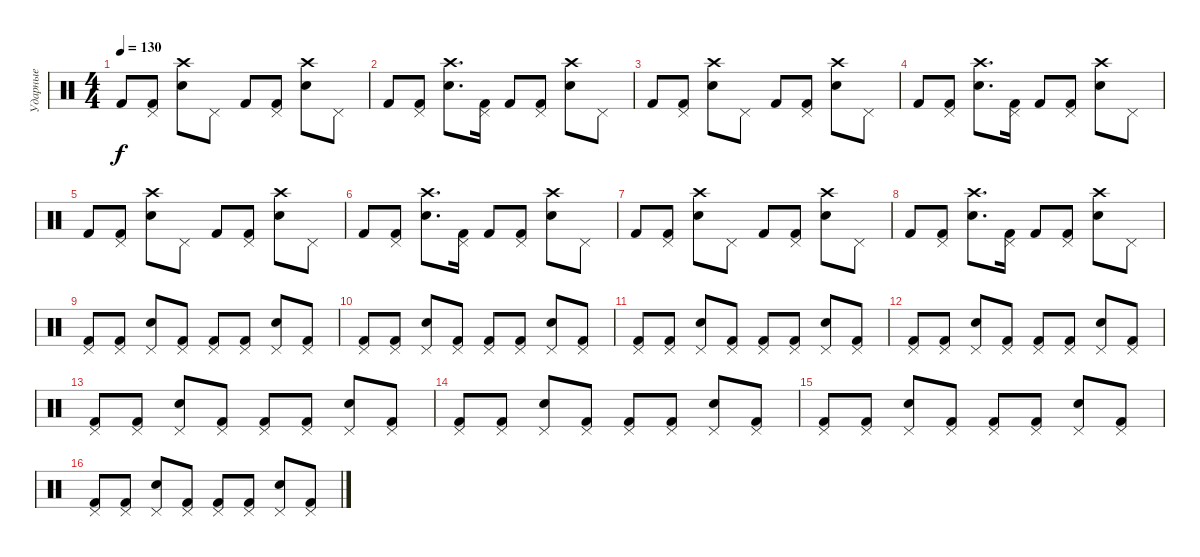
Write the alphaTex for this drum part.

\track ("Ударные" "Ударные") {instrument percussion}
\staff {score}
\articulation defaults
\ts (4 4)
\tempo 130
\clef neutral
\ks c "Kick (hit) 2".8{dy f}
("Pedal Hi-Hat (hit)" "Kick (hit) 2").8 ("Crash high (hit)" "Snare (hit) 2").8 "Pedal Hi-Hat (hit)".8 "Kick (hit) 2".8 ("Pedal Hi-Hat (hit)" "Kick (hit) 2").8 ("Crash high (hit)" "Snare (hit) 2").8 "Pedal Hi-Hat (hit)".8 |
"Kick (hit) 2".8 ("Pedal Hi-Hat (hit)" "Kick (hit) 2").8 ("Crash high (hit)" "Snare (hit) 2").8{d} ("Pedal Hi-Hat (hit)" "Kick (hit) 2").16 "Kick (hit) 2".8 ("Pedal Hi-Hat (hit)" "Kick (hit) 2").8 ("Crash high (hit)" "Snare (hit) 2").8 "Pedal Hi-Hat (hit)".8 |
"Kick (hit) 2".8 ("Pedal Hi-Hat (hit)" "Kick (hit) 2").8 ("Crash high (hit)" "Snare (hit) 2").8 "Pedal Hi-Hat (hit)".8 "Kick (hit) 2".8 ("Pedal Hi-Hat (hit)" "Kick (hit) 2").8 ("Crash high (hit)" "Snare (hit) 2").8 "Pedal Hi-Hat (hit)".8 |
"Kick (hit) 2".8 ("Pedal Hi-Hat (hit)" "Kick (hit) 2").8 ("Crash high (hit)" "Snare (hit) 2").8{d} ("Pedal Hi-Hat (hit)" "Kick (hit) 2").16 "Kick (hit) 2".8 ("Pedal Hi-Hat (hit)" "Kick (hit) 2").8 ("Crash high (hit)" "Snare (hit) 2").8 "Pedal Hi-Hat (hit)".8 |
"Kick (hit) 2".8 ("Pedal Hi-Hat (hit)" "Kick (hit) 2").8 ("Crash high (hit)" "Snare (hit) 2").8 "Pedal Hi-Hat (hit)".8 "Kick (hit) 2".8 ("Pedal Hi-Hat (hit)" "Kick (hit) 2").8 ("Crash high (hit)" "Snare (hit) 2").8 "Pedal Hi-Hat (hit)".8 |
"Kick (hit) 2".8 ("Pedal Hi-Hat (hit)" "Kick (hit) 2").8 ("Crash high (hit)" "Snare (hit) 2").8{d} ("Pedal Hi-Hat (hit)" "Kick (hit) 2").16 "Kick (hit) 2".8 ("Pedal Hi-Hat (hit)" "Kick (hit) 2").8 ("Crash high (hit)" "Snare (hit) 2").8 "Pedal Hi-Hat (hit)".8 |
"Kick (hit) 2".8 ("Pedal Hi-Hat (hit)" "Kick (hit) 2").8 ("Crash high (hit)" "Snare (hit) 2").8 "Pedal Hi-Hat (hit)".8 "Kick (hit) 2".8 ("Pedal Hi-Hat (hit)" "Kick (hit) 2").8 ("Crash high (hit)" "Snare (hit) 2").8 "Pedal Hi-Hat (hit)".8 |
"Kick (hit) 2".8 ("Pedal Hi-Hat (hit)" "Kick (hit) 2").8 ("Crash high (hit)" "Snare (hit) 2").8{d} ("Pedal Hi-Hat (hit)" "Kick (hit) 2").16 "Kick (hit) 2".8 ("Pedal Hi-Hat (hit)" "Kick (hit) 2").8 ("Crash high (hit)" "Snare (hit) 2").8 "Pedal Hi-Hat (hit)".8 |
("Pedal Hi-Hat (hit)" "Kick (hit) 2").8 ("Pedal Hi-Hat (hit)" "Kick (hit) 2").8 ("Pedal Hi-Hat (hit)" "Snare (hit) 2").8 ("Pedal Hi-Hat (hit)" "Kick (hit) 2").8 ("Pedal Hi-Hat (hit)" "Kick (hit) 2").8 ("Pedal Hi-Hat (hit)" "Kick (hit) 2").8 ("Pedal Hi-Hat (hit)" "Snare (hit) 2").8 ("Pedal Hi-Hat (hit)" "Kick (hit) 2").8 |
("Pedal Hi-Hat (hit)" "Kick (hit) 2").8 ("Pedal Hi-Hat (hit)" "Kick (hit) 2").8 ("Pedal Hi-Hat (hit)" "Snare (hit) 2").8 ("Pedal Hi-Hat (hit)" "Kick (hit) 2").8 ("Pedal Hi-Hat (hit)" "Kick (hit) 2").8 ("Pedal Hi-Hat (hit)" "Kick (hit) 2").8 ("Pedal Hi-Hat (hit)" "Snare (hit) 2").8 ("Pedal Hi-Hat (hit)" "Kick (hit) 2").8 |
("Pedal Hi-Hat (hit)" "Kick (hit) 2").8 ("Pedal Hi-Hat (hit)" "Kick (hit) 2").8 ("Pedal Hi-Hat (hit)" "Snare (hit) 2").8 ("Pedal Hi-Hat (hit)" "Kick (hit) 2").8 ("Pedal Hi-Hat (hit)" "Kick (hit) 2").8 ("Pedal Hi-Hat (hit)" "Kick (hit) 2").8 ("Pedal Hi-Hat (hit)" "Snare (hit) 2").8 ("Pedal Hi-Hat (hit)" "Kick (hit) 2").8 |
("Pedal Hi-Hat (hit)" "Kick (hit) 2").8 ("Pedal Hi-Hat (hit)" "Kick (hit) 2").8 ("Pedal Hi-Hat (hit)" "Snare (hit) 2").8 ("Pedal Hi-Hat (hit)" "Kick (hit) 2").8 ("Pedal Hi-Hat (hit)" "Kick (hit) 2").8 ("Pedal Hi-Hat (hit)" "Kick (hit) 2").8 ("Pedal Hi-Hat (hit)" "Snare (hit) 2").8 ("Pedal Hi-Hat (hit)" "Kick (hit) 2").8 |
("Pedal Hi-Hat (hit)" "Kick (hit) 2").8 ("Pedal Hi-Hat (hit)" "Kick (hit) 2").8 ("Pedal Hi-Hat (hit)" "Snare (hit) 2").8 ("Pedal Hi-Hat (hit)" "Kick (hit) 2").8 ("Pedal Hi-Hat (hit)" "Kick (hit) 2").8 ("Pedal Hi-Hat (hit)" "Kick (hit) 2").8 ("Pedal Hi-Hat (hit)" "Snare (hit) 2").8 ("Pedal Hi-Hat (hit)" "Kick (hit) 2").8 |
("Pedal Hi-Hat (hit)" "Kick (hit) 2").8 ("Pedal Hi-Hat (hit)" "Kick (hit) 2").8 ("Pedal Hi-Hat (hit)" "Snare (hit) 2").8 ("Pedal Hi-Hat (hit)" "Kick (hit) 2").8 ("Pedal Hi-Hat (hit)" "Kick (hit) 2").8 ("Pedal Hi-Hat (hit)" "Kick (hit) 2").8 ("Pedal Hi-Hat (hit)" "Snare (hit) 2").8 ("Pedal Hi-Hat (hit)" "Kick (hit) 2").8 |
("Pedal Hi-Hat (hit)" "Kick (hit) 2").8 ("Pedal Hi-Hat (hit)" "Kick (hit) 2").8 ("Pedal Hi-Hat (hit)" "Snare (hit) 2").8 ("Pedal Hi-Hat (hit)" "Kick (hit) 2").8 ("Pedal Hi-Hat (hit)" "Kick (hit) 2").8 ("Pedal Hi-Hat (hit)" "Kick (hit) 2").8 ("Pedal Hi-Hat (hit)" "Snare (hit) 2").8 ("Pedal Hi-Hat (hit)" "Kick (hit) 2").8 |
("Pedal Hi-Hat (hit)" "Kick (hit) 2").8 ("Pedal Hi-Hat (hit)" "Kick (hit) 2").8 ("Pedal Hi-Hat (hit)" "Snare (hit) 2").8 ("Pedal Hi-Hat (hit)" "Kick (hit) 2").8 ("Pedal Hi-Hat (hit)" "Kick (hit) 2").8 ("Pedal Hi-Hat (hit)" "Kick (hit) 2").8 ("Pedal Hi-Hat (hit)" "Snare (hit) 2").8 ("Pedal Hi-Hat (hit)" "Kick (hit) 2").8
